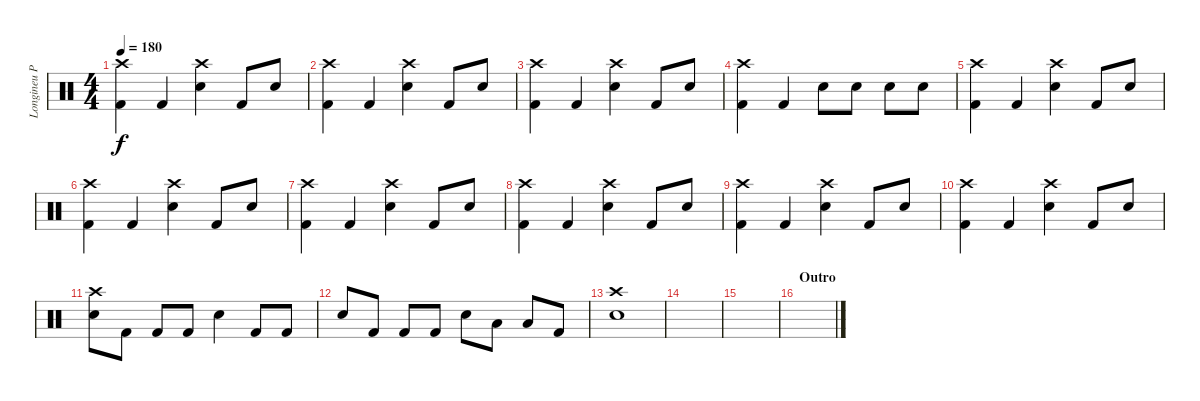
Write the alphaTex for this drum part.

\track ("Longineu Parsons III (Drums)" "Longineu P") {instrument percussion}
\staff {score}
\articulation defaults
\ts (4 4)
\tempo 180
\clef neutral
\ks c
("Kick (hit) 2" "Crash high (hit)").4{dy f} "Kick (hit) 2".4 ("Snare (hit) 2" "Crash high (hit)").4 "Kick (hit) 2".8 "Snare (hit) 2".8 |
("Kick (hit) 2" "Crash high (hit)").4 "Kick (hit) 2".4 ("Snare (hit) 2" "Crash high (hit)").4 "Kick (hit) 2".8 "Snare (hit) 2".8 |
("Kick (hit) 2" "Crash high (hit)").4 "Kick (hit) 2".4 ("Snare (hit) 2" "Crash high (hit)").4 "Kick (hit) 2".8 "Snare (hit) 2".8 |
("Kick (hit) 2" "Crash high (hit)").4 "Kick (hit) 2".4 "Snare (hit) 2".8 "Snare (hit) 2".8 "Snare (hit) 2".8 "Snare (hit) 2".8 |
("Kick (hit) 2" "Crash high (hit)").4 "Kick (hit) 2".4 ("Snare (hit) 2" "Crash high (hit)").4 "Kick (hit) 2".8 "Snare (hit) 2".8 |
("Kick (hit) 2" "Crash high (hit)").4 "Kick (hit) 2".4 ("Snare (hit) 2" "Crash high (hit)").4 "Kick (hit) 2".8 "Snare (hit) 2".8 |
("Kick (hit) 2" "Crash high (hit)").4 "Kick (hit) 2".4 ("Snare (hit) 2" "Crash high (hit)").4 "Kick (hit) 2".8 "Snare (hit) 2".8 |
("Kick (hit) 2" "Crash high (hit)").4 "Kick (hit) 2".4 ("Snare (hit) 2" "Crash high (hit)").4 "Kick (hit) 2".8 "Snare (hit) 2".8 |
("Kick (hit) 2" "Crash high (hit)").4 "Kick (hit) 2".4 ("Snare (hit) 2" "Crash high (hit)").4 "Kick (hit) 2".8 "Snare (hit) 2".8 |
("Kick (hit) 2" "Crash high (hit)").4 "Kick (hit) 2".4 ("Snare (hit) 2" "Crash high (hit)").4 "Kick (hit) 2".8 "Snare (hit) 2".8 |
("Crash high (hit)" "Snare (hit) 2").8 "Kick (hit) 2".8 "Kick (hit) 2".8 "Kick (hit) 2".8 "Snare (hit) 2".4 "Kick (hit) 2".8 "Kick (hit) 2".8 |
"Snare (hit) 2".8 "Kick (hit) 2".8 "Kick (hit) 2".8 "Kick (hit) 2".8 "Snare (hit) 2".8 "Low Tom (hit)".8 "Low Floor Tom (hit)".8 "Kick (hit) 2".8 |
("Snare (hit) 2" "Crash high (hit)").1 |
|
|
\section ("" "Outro")
